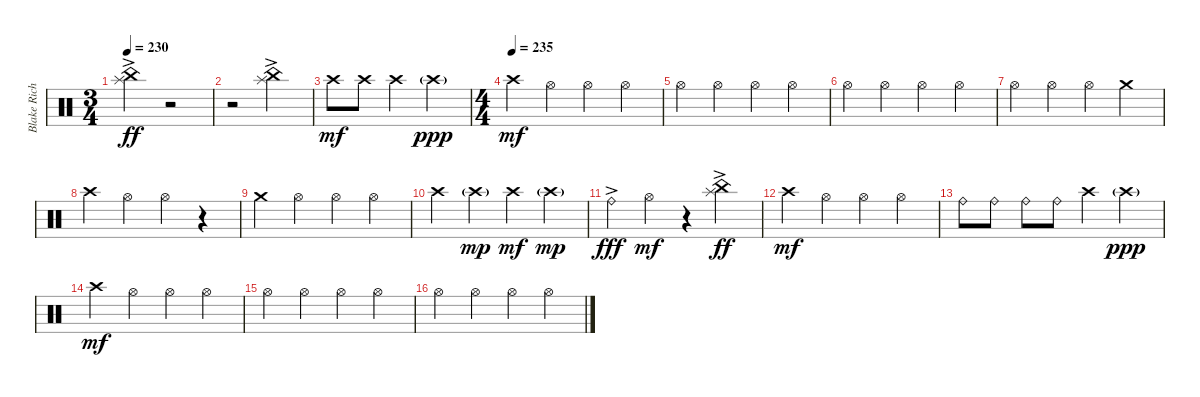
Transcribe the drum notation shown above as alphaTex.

\track ("Blake Richardson Drums" "Blake Rich") {instrument percussion}
\staff {score}
\articulation defaults
\ts (3 4)
\tempo 230
\clef neutral
\ks c
("China (hit)" "Splash (hit)"{ac}).4{dy ff} r.2 |
r.2 ("China (hit)" "Splash (hit)"{ac}).4 |
"Crash high (hit)".8{dy mf} "Crash high (hit)".8 "Crash high (hit)".4 "Crash high (hit)"{g}.4{dy ppp} |
\ts (4 4)
\tempo (235)
"Crash high (hit)".4{dy mf} "Hi-Hat (open)".4 "Hi-Hat (open)".4 "Hi-Hat (open)".4 |
"Hi-Hat (open)".4 "Hi-Hat (open)".4 "Hi-Hat (open)".4 "Hi-Hat (open)".4 |
"Hi-Hat (open)".4 "Hi-Hat (open)".4 "Hi-Hat (open)".4 "Hi-Hat (open)".4 |
"Hi-Hat (open)".4 "Hi-Hat (open)".4 "Hi-Hat (open)".4 "Crash medium (hit)".4 |
"Crash high (hit)".4 "Hi-Hat (open)".4 "Hi-Hat (open)".4 r.4 |
"Crash medium (hit)".4 "Hi-Hat (open)".4 "Hi-Hat (open)".4 "Hi-Hat (open)".4 |
"Crash high (hit)".4 "Crash high (hit)"{g}.4{dy mp} "Crash high (hit)".4{dy mf} "Crash high (hit)"{g}.4{dy mp} |
"Ride (bell)"{ac}.4{dy fff} "Hi-Hat (open)".4{dy mf} r.4 ("China (hit)" "Splash (hit)"{ac}).4{dy ff} |
"Crash high (hit)".4{dy mf} "Hi-Hat (open)".4 "Hi-Hat (open)".4 "Hi-Hat (open)".4 |
"Ride (bell)".8 "Ride (bell)".8 "Ride (bell)".8 "Ride (bell)".8 "Crash high (hit)".4 "Crash high (hit)"{g}.4{dy ppp} |
"Crash high (hit)".4{dy mf} "Hi-Hat (open)".4 "Hi-Hat (open)".4 "Hi-Hat (open)".4 |
"Hi-Hat (open)".4 "Hi-Hat (open)".4 "Hi-Hat (open)".4 "Hi-Hat (open)".4 |
"Hi-Hat (open)".4 "Hi-Hat (open)".4 "Hi-Hat (open)".4 "Hi-Hat (open)".4
